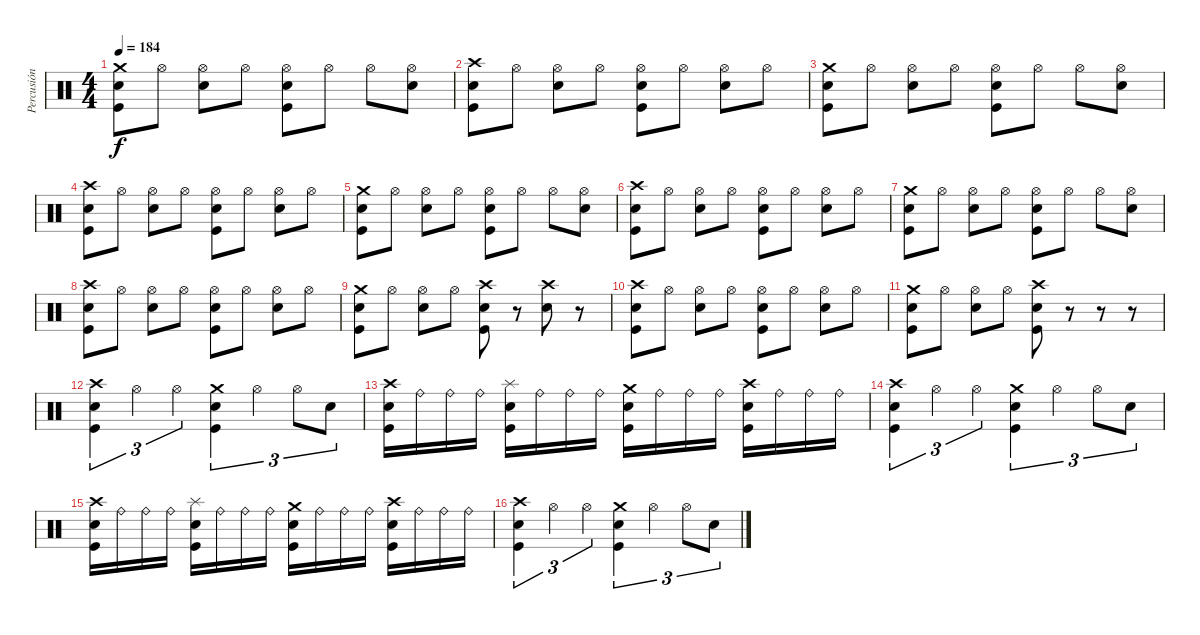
\track ("Percusión" "Percusión") {instrument percussion}
\staff {score}
\articulation defaults
\ts (4 4)
\tempo 184
\clef neutral
\ks c
("Crash medium (hit)" "Electric Snare (hit)" "Kick (hit)").8{dy f} "Hi-Hat (open)".8 ("Hi-Hat (open)" "Electric Snare (hit)").8 "Hi-Hat (open)".8 ("Hi-Hat (open)" "Electric Snare (hit)" "Kick (hit)").8 "Hi-Hat (open)".8 "Hi-Hat (open)".8 ("Hi-Hat (open)" "Electric Snare (hit)").8 |
("Crash high (hit)" "Electric Snare (hit)" "Kick (hit)").8 "Hi-Hat (open)".8 ("Hi-Hat (open)" "Electric Snare (hit)").8 "Hi-Hat (open)".8 ("Hi-Hat (open)" "Electric Snare (hit)" "Kick (hit)").8 "Hi-Hat (open)".8 ("Hi-Hat (open)" "Electric Snare (hit)").8 "Hi-Hat (open)".8 |
("Crash medium (hit)" "Electric Snare (hit)" "Kick (hit)").8 "Hi-Hat (open)".8 ("Hi-Hat (open)" "Electric Snare (hit)").8 "Hi-Hat (open)".8 ("Hi-Hat (open)" "Electric Snare (hit)" "Kick (hit)").8 "Hi-Hat (open)".8 "Hi-Hat (open)".8 ("Hi-Hat (open)" "Electric Snare (hit)").8 |
("Crash high (hit)" "Electric Snare (hit)" "Kick (hit)").8 "Hi-Hat (open)".8 ("Hi-Hat (open)" "Electric Snare (hit)").8 "Hi-Hat (open)".8 ("Hi-Hat (open)" "Electric Snare (hit)" "Kick (hit)").8 "Hi-Hat (open)".8 ("Hi-Hat (open)" "Electric Snare (hit)").8 "Hi-Hat (open)".8 |
("Crash medium (hit)" "Electric Snare (hit)" "Kick (hit)").8 "Hi-Hat (open)".8 ("Hi-Hat (open)" "Electric Snare (hit)").8 "Hi-Hat (open)".8 ("Hi-Hat (open)" "Electric Snare (hit)" "Kick (hit)").8 "Hi-Hat (open)".8 "Hi-Hat (open)".8 ("Hi-Hat (open)" "Electric Snare (hit)").8 |
("Crash high (hit)" "Electric Snare (hit)" "Kick (hit)").8 "Hi-Hat (open)".8 ("Hi-Hat (open)" "Electric Snare (hit)").8 "Hi-Hat (open)".8 ("Hi-Hat (open)" "Electric Snare (hit)" "Kick (hit)").8 "Hi-Hat (open)".8 ("Hi-Hat (open)" "Electric Snare (hit)").8 "Hi-Hat (open)".8 |
("Crash medium (hit)" "Electric Snare (hit)" "Kick (hit)").8 "Hi-Hat (open)".8 ("Hi-Hat (open)" "Electric Snare (hit)").8 "Hi-Hat (open)".8 ("Hi-Hat (open)" "Electric Snare (hit)" "Kick (hit)").8 "Hi-Hat (open)".8 "Hi-Hat (open)".8 ("Hi-Hat (open)" "Electric Snare (hit)").8 |
("Crash high (hit)" "Electric Snare (hit)" "Kick (hit)").8 "Hi-Hat (open)".8 ("Hi-Hat (open)" "Electric Snare (hit)").8 "Hi-Hat (open)".8 ("Hi-Hat (open)" "Electric Snare (hit)" "Kick (hit)").8 "Hi-Hat (open)".8 ("Hi-Hat (open)" "Electric Snare (hit)").8 "Hi-Hat (open)".8 |
("Crash medium (hit)" "Electric Snare (hit)" "Kick (hit)").8 "Hi-Hat (open)".8 ("Hi-Hat (open)" "Electric Snare (hit)").8 "Hi-Hat (open)".8 ("Crash high (hit)" "Electric Snare (hit)" "Kick (hit)").8 r.8 ("Crash high (hit)" "Electric Snare (hit)").8 r.8 |
("Crash high (hit)" "Electric Snare (hit)" "Kick (hit)").8 "Hi-Hat (open)".8 ("Hi-Hat (open)" "Electric Snare (hit)").8 "Hi-Hat (open)".8 ("Hi-Hat (open)" "Electric Snare (hit)" "Kick (hit)").8 "Hi-Hat (open)".8 ("Hi-Hat (open)" "Electric Snare (hit)").8 "Hi-Hat (open)".8 |
("Crash medium (hit)" "Electric Snare (hit)" "Kick (hit)").8 "Hi-Hat (open)".8 ("Hi-Hat (open)" "Electric Snare (hit)").8 "Hi-Hat (open)".8 ("Crash high (hit)" "Electric Snare (hit)" "Kick (hit)").8 r.8 r.8 r.8 |
("Crash high (hit)" "Electric Snare (hit)" "Kick (hit)").4{tu (3 2)} "Hi-Hat (open)".4{tu (3 2)} "Hi-Hat (open)".4{tu (3 2)} ("Crash medium (hit)" "Electric Snare (hit)" "Kick (hit)").4{tu (3 2)} "Hi-Hat (open)".4{tu (3 2)} "Hi-Hat (open)".8{tu (3 2)} "Electric Snare (hit)".8{tu (3 2)} |
("Crash high (hit)" "Electric Snare (hit)" "Kick (hit)").16 "Ride (bell)".16 "Ride (bell)".16 "Ride (bell)".16 ("Splash (hit)" "Electric Snare (hit)" "Kick (hit)").16 "Ride (bell)".16 "Ride (bell)".16 "Ride (bell)".16 ("Crash medium (hit)" "Electric Snare (hit)" "Kick (hit)").16 "Ride (bell)".16 "Ride (bell)".16 "Ride (bell)".16 ("Crash high (hit)" "Electric Snare (hit)" "Kick (hit)").16 "Ride (bell)".16 "Ride (bell)".16 "Ride (bell)".16 |
("Crash high (hit)" "Electric Snare (hit)" "Kick (hit)").4{tu (3 2)} "Hi-Hat (open)".4{tu (3 2)} "Hi-Hat (open)".4{tu (3 2)} ("Crash medium (hit)" "Electric Snare (hit)" "Kick (hit)").4{tu (3 2)} "Hi-Hat (open)".4{tu (3 2)} "Hi-Hat (open)".8{tu (3 2)} "Electric Snare (hit)".8{tu (3 2)} |
("Crash high (hit)" "Electric Snare (hit)" "Kick (hit)").16 "Ride (bell)".16 "Ride (bell)".16 "Ride (bell)".16 ("Splash (hit)" "Electric Snare (hit)" "Kick (hit)").16 "Ride (bell)".16 "Ride (bell)".16 "Ride (bell)".16 ("Crash medium (hit)" "Electric Snare (hit)" "Kick (hit)").16 "Ride (bell)".16 "Ride (bell)".16 "Ride (bell)".16 ("Crash high (hit)" "Electric Snare (hit)" "Kick (hit)").16 "Ride (bell)".16 "Ride (bell)".16 "Ride (bell)".16 |
("Crash high (hit)" "Electric Snare (hit)" "Kick (hit)").4{tu (3 2)} "Hi-Hat (open)".4{tu (3 2)} "Hi-Hat (open)".4{tu (3 2)} ("Crash medium (hit)" "Electric Snare (hit)" "Kick (hit)").4{tu (3 2)} "Hi-Hat (open)".4{tu (3 2)} "Hi-Hat (open)".8{tu (3 2)} "Electric Snare (hit)".8{tu (3 2)}
